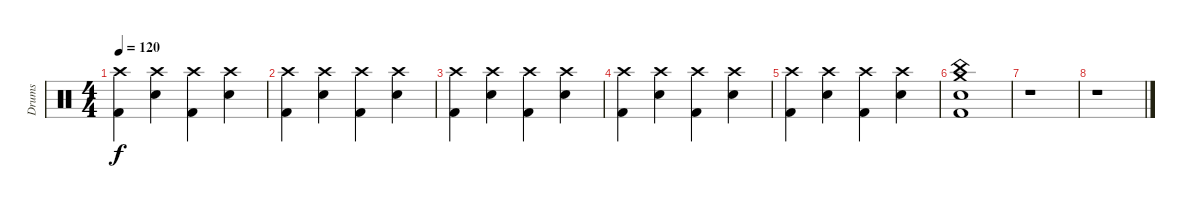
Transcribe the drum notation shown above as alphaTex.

\track ("Drums" "Drums") {instrument percussion}
\staff {score}
\articulation defaults
\ts (4 4)
\tempo 120
\clef neutral
\ks c
("Kick (hit) 2" "Crash high (hit)").4{dy f} ("Snare (hit) 2" "Crash high (hit)").4 ("Kick (hit) 2" "Crash high (hit)").4 ("Snare (hit) 2" "Crash high (hit)").4 |
("Kick (hit) 2" "Crash high (hit)").4 ("Snare (hit) 2" "Crash high (hit)").4 ("Kick (hit) 2" "Crash high (hit)").4 ("Snare (hit) 2" "Crash high (hit)").4 |
("Kick (hit) 2" "Crash high (hit)").4 ("Snare (hit) 2" "Crash high (hit)").4 ("Kick (hit) 2" "Crash high (hit)").4 ("Snare (hit) 2" "Crash high (hit)").4 |
("Kick (hit) 2" "Crash high (hit)").4 ("Snare (hit) 2" "Crash high (hit)").4 ("Kick (hit) 2" "Crash high (hit)").4 ("Snare (hit) 2" "Crash high (hit)").4 |
("Kick (hit) 2" "Crash high (hit)").4 ("Snare (hit) 2" "Crash high (hit)").4 ("Kick (hit) 2" "Crash high (hit)").4 ("Snare (hit) 2" "Crash high (hit)").4 |
("Kick (hit) 2" "Snare (hit) 2" "China (hit)" "Crash medium (hit)").1 |
r.1 |
r.1
